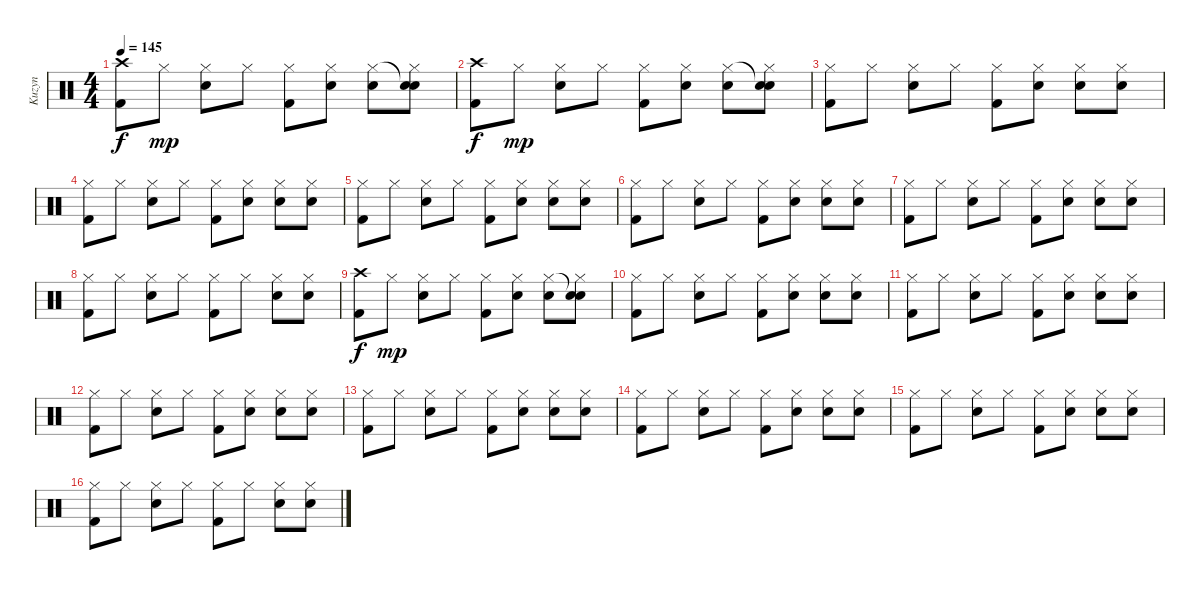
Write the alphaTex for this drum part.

\track ("Kuzyn" "Kuzyn") {instrument percussion}
\staff {score}
\articulation defaults
\ts (4 4)
\tempo 145
\clef neutral
\ks c
("Kick (hit) 2" "Crash high (hit)").8{dy f} "Hi-Hat (closed)".8{dy mp} ("Snare (hit) 2" "Hi-Hat (closed)").8 "Hi-Hat (closed)".8 ("Kick (hit) 2" "Hi-Hat (closed)").8 ("Snare (hit) 2" "Hi-Hat (closed)").8 ("Snare (hit) 2" "Hi-Hat (closed)").8 ("Snare (hit) 2" "Snare (hit)"{t} "Hi-Hat (closed)").8 |
("Kick (hit) 2" "Crash high (hit)").8{dy f} "Hi-Hat (closed)".8{dy mp} ("Snare (hit) 2" "Hi-Hat (closed)").8 "Hi-Hat (closed)".8 ("Kick (hit) 2" "Hi-Hat (closed)").8 ("Snare (hit) 2" "Hi-Hat (closed)").8 ("Snare (hit) 2" "Hi-Hat (closed)").8 ("Snare (hit) 2" "Snare (hit)"{t} "Hi-Hat (closed)").8 |
("Kick (hit) 2" "Hi-Hat (closed)").8 "Hi-Hat (closed)".8 ("Snare (hit) 2" "Hi-Hat (closed)").8 "Hi-Hat (closed)".8 ("Kick (hit) 2" "Hi-Hat (closed)").8 ("Snare (hit) 2" "Hi-Hat (closed)").8 ("Snare (hit) 2" "Hi-Hat (closed)").8 ("Snare (hit) 2" "Hi-Hat (closed)").8 |
("Kick (hit) 2" "Hi-Hat (closed)").8 "Hi-Hat (closed)".8 ("Snare (hit) 2" "Hi-Hat (closed)").8 "Hi-Hat (closed)".8 ("Kick (hit) 2" "Hi-Hat (closed)").8 ("Snare (hit) 2" "Hi-Hat (closed)").8 ("Snare (hit) 2" "Hi-Hat (closed)").8 ("Snare (hit) 2" "Hi-Hat (closed)").8 |
("Kick (hit) 2" "Hi-Hat (closed)").8 "Hi-Hat (closed)".8 ("Snare (hit) 2" "Hi-Hat (closed)").8 "Hi-Hat (closed)".8 ("Kick (hit) 2" "Hi-Hat (closed)").8 ("Snare (hit) 2" "Hi-Hat (closed)").8 ("Snare (hit) 2" "Hi-Hat (closed)").8 ("Snare (hit) 2" "Hi-Hat (closed)").8 |
("Kick (hit) 2" "Hi-Hat (closed)").8 "Hi-Hat (closed)".8 ("Snare (hit) 2" "Hi-Hat (closed)").8 "Hi-Hat (closed)".8 ("Kick (hit) 2" "Hi-Hat (closed)").8 ("Snare (hit) 2" "Hi-Hat (closed)").8 ("Snare (hit) 2" "Hi-Hat (closed)").8 ("Snare (hit) 2" "Hi-Hat (closed)").8 |
("Kick (hit) 2" "Hi-Hat (closed)").8 "Hi-Hat (closed)".8 ("Snare (hit) 2" "Hi-Hat (closed)").8 "Hi-Hat (closed)".8 ("Kick (hit) 2" "Hi-Hat (closed)").8 ("Snare (hit) 2" "Hi-Hat (closed)").8 ("Snare (hit) 2" "Hi-Hat (closed)").8 ("Snare (hit) 2" "Hi-Hat (closed)").8 |
("Kick (hit) 2" "Hi-Hat (closed)").8 "Hi-Hat (closed)".8 ("Snare (hit) 2" "Hi-Hat (closed)").8 "Hi-Hat (closed)".8 ("Kick (hit) 2" "Hi-Hat (closed)").8 "Hi-Hat (closed)".8 ("Snare (hit) 2" "Hi-Hat (closed)").8 ("Snare (hit) 2" "Hi-Hat (closed)").8 |
("Kick (hit) 2" "Crash high (hit)").8{dy f} "Hi-Hat (closed)".8{dy mp} ("Snare (hit) 2" "Hi-Hat (closed)").8 "Hi-Hat (closed)".8 ("Kick (hit) 2" "Hi-Hat (closed)").8 ("Snare (hit) 2" "Hi-Hat (closed)").8 ("Snare (hit) 2" "Hi-Hat (closed)").8 ("Snare (hit) 2" "Snare (hit)"{t} "Hi-Hat (closed)").8 |
("Kick (hit) 2" "Hi-Hat (closed)").8 "Hi-Hat (closed)".8 ("Snare (hit) 2" "Hi-Hat (closed)").8 "Hi-Hat (closed)".8 ("Kick (hit) 2" "Hi-Hat (closed)").8 ("Snare (hit) 2" "Hi-Hat (closed)").8 ("Snare (hit) 2" "Hi-Hat (closed)").8 ("Snare (hit) 2" "Hi-Hat (closed)").8 |
("Kick (hit) 2" "Hi-Hat (closed)").8 "Hi-Hat (closed)".8 ("Snare (hit) 2" "Hi-Hat (closed)").8 "Hi-Hat (closed)".8 ("Kick (hit) 2" "Hi-Hat (closed)").8 ("Snare (hit) 2" "Hi-Hat (closed)").8 ("Snare (hit) 2" "Hi-Hat (closed)").8 ("Snare (hit) 2" "Hi-Hat (closed)").8 |
("Kick (hit) 2" "Hi-Hat (closed)").8 "Hi-Hat (closed)".8 ("Snare (hit) 2" "Hi-Hat (closed)").8 "Hi-Hat (closed)".8 ("Kick (hit) 2" "Hi-Hat (closed)").8 ("Snare (hit) 2" "Hi-Hat (closed)").8 ("Snare (hit) 2" "Hi-Hat (closed)").8 ("Snare (hit) 2" "Hi-Hat (closed)").8 |
("Kick (hit) 2" "Hi-Hat (closed)").8 "Hi-Hat (closed)".8 ("Snare (hit) 2" "Hi-Hat (closed)").8 "Hi-Hat (closed)".8 ("Kick (hit) 2" "Hi-Hat (closed)").8 ("Snare (hit) 2" "Hi-Hat (closed)").8 ("Snare (hit) 2" "Hi-Hat (closed)").8 ("Snare (hit) 2" "Hi-Hat (closed)").8 |
("Kick (hit) 2" "Hi-Hat (closed)").8 "Hi-Hat (closed)".8 ("Snare (hit) 2" "Hi-Hat (closed)").8 "Hi-Hat (closed)".8 ("Kick (hit) 2" "Hi-Hat (closed)").8 ("Snare (hit) 2" "Hi-Hat (closed)").8 ("Snare (hit) 2" "Hi-Hat (closed)").8 ("Snare (hit) 2" "Hi-Hat (closed)").8 |
("Kick (hit) 2" "Hi-Hat (closed)").8 "Hi-Hat (closed)".8 ("Snare (hit) 2" "Hi-Hat (closed)").8 "Hi-Hat (closed)".8 ("Kick (hit) 2" "Hi-Hat (closed)").8 ("Snare (hit) 2" "Hi-Hat (closed)").8 ("Snare (hit) 2" "Hi-Hat (closed)").8 ("Snare (hit) 2" "Hi-Hat (closed)").8 |
("Kick (hit) 2" "Hi-Hat (closed)").8 "Hi-Hat (closed)".8 ("Snare (hit) 2" "Hi-Hat (closed)").8 "Hi-Hat (closed)".8 ("Kick (hit) 2" "Hi-Hat (closed)").8 "Hi-Hat (closed)".8 ("Snare (hit) 2" "Hi-Hat (closed)").8 ("Snare (hit) 2" "Hi-Hat (closed)").8
